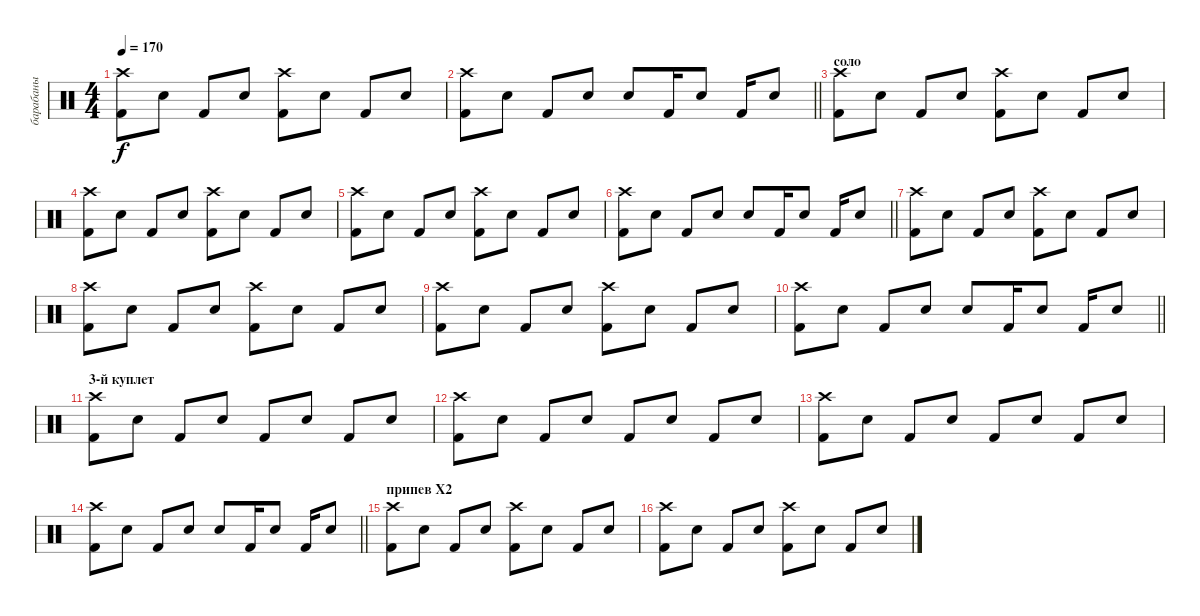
\track ("барабаны" "барабаны") {instrument percussion}
\staff {score}
\articulation defaults
\ts (4 4)
\tempo 170
\clef neutral
\ks c
("Crash high (hit)" "Kick (hit) 2").8{dy f} "Snare (hit) 2".8 "Kick (hit) 2".8 "Snare (hit) 2".8 ("Crash high (hit)" "Kick (hit) 2").8 "Snare (hit) 2".8 "Kick (hit) 2".8 "Snare (hit) 2".8 |
\barLineRight lightlight
("Crash high (hit)" "Kick (hit) 2").8 "Snare (hit) 2".8 "Kick (hit) 2".8 "Snare (hit) 2".8 "Snare (hit) 2".8 "Kick (hit) 2".16 "Snare (hit) 2".8 "Kick (hit) 2".16 "Snare (hit) 2".8 |
\section ("" "соло")
("Crash high (hit)" "Kick (hit) 2").8 "Snare (hit) 2".8 "Kick (hit) 2".8 "Snare (hit) 2".8 ("Crash high (hit)" "Kick (hit) 2").8 "Snare (hit) 2".8 "Kick (hit) 2".8 "Snare (hit) 2".8 |
("Crash high (hit)" "Kick (hit) 2").8 "Snare (hit) 2".8 "Kick (hit) 2".8 "Snare (hit) 2".8 ("Crash high (hit)" "Kick (hit) 2").8 "Snare (hit) 2".8 "Kick (hit) 2".8 "Snare (hit) 2".8 |
("Crash high (hit)" "Kick (hit) 2").8 "Snare (hit) 2".8 "Kick (hit) 2".8 "Snare (hit) 2".8 ("Crash high (hit)" "Kick (hit) 2").8 "Snare (hit) 2".8 "Kick (hit) 2".8 "Snare (hit) 2".8 |
\barLineRight lightlight
("Crash high (hit)" "Kick (hit) 2").8 "Snare (hit) 2".8 "Kick (hit) 2".8 "Snare (hit) 2".8 "Snare (hit) 2".8 "Kick (hit) 2".16 "Snare (hit) 2".8 "Kick (hit) 2".16 "Snare (hit) 2".8 |
("Crash high (hit)" "Kick (hit) 2").8 "Snare (hit) 2".8 "Kick (hit) 2".8 "Snare (hit) 2".8 ("Crash high (hit)" "Kick (hit) 2").8 "Snare (hit) 2".8 "Kick (hit) 2".8 "Snare (hit) 2".8 |
("Crash high (hit)" "Kick (hit) 2").8 "Snare (hit) 2".8 "Kick (hit) 2".8 "Snare (hit) 2".8 ("Crash high (hit)" "Kick (hit) 2").8 "Snare (hit) 2".8 "Kick (hit) 2".8 "Snare (hit) 2".8 |
("Crash high (hit)" "Kick (hit) 2").8 "Snare (hit) 2".8 "Kick (hit) 2".8 "Snare (hit) 2".8 ("Crash high (hit)" "Kick (hit) 2").8 "Snare (hit) 2".8 "Kick (hit) 2".8 "Snare (hit) 2".8 |
\barLineRight lightlight
("Crash high (hit)" "Kick (hit) 2").8 "Snare (hit) 2".8 "Kick (hit) 2".8 "Snare (hit) 2".8 "Snare (hit) 2".8 "Kick (hit) 2".16 "Snare (hit) 2".8 "Kick (hit) 2".16 "Snare (hit) 2".8 |
\section ("" "3-й куплет")
("Crash high (hit)" "Kick (hit) 2").8 "Snare (hit) 2".8 "Kick (hit) 2".8 "Snare (hit) 2".8 "Kick (hit) 2".8 "Snare (hit) 2".8 "Kick (hit) 2".8 "Snare (hit) 2".8 |
("Crash high (hit)" "Kick (hit) 2").8 "Snare (hit) 2".8 "Kick (hit) 2".8 "Snare (hit) 2".8 "Kick (hit) 2".8 "Snare (hit) 2".8 "Kick (hit) 2".8 "Snare (hit) 2".8 |
("Crash high (hit)" "Kick (hit) 2").8 "Snare (hit) 2".8 "Kick (hit) 2".8 "Snare (hit) 2".8 "Kick (hit) 2".8 "Snare (hit) 2".8 "Kick (hit) 2".8 "Snare (hit) 2".8 |
\barLineRight lightlight
("Crash high (hit)" "Kick (hit) 2").8 "Snare (hit) 2".8 "Kick (hit) 2".8 "Snare (hit) 2".8 "Snare (hit) 2".8 "Kick (hit) 2".16 "Snare (hit) 2".8 "Kick (hit) 2".16 "Snare (hit) 2".8 |
\section ("" "припев Х2")
("Crash high (hit)" "Kick (hit) 2").8 "Snare (hit) 2".8 "Kick (hit) 2".8 "Snare (hit) 2".8 ("Crash high (hit)" "Kick (hit) 2").8 "Snare (hit) 2".8 "Kick (hit) 2".8 "Snare (hit) 2".8 |
("Crash high (hit)" "Kick (hit) 2").8 "Snare (hit) 2".8 "Kick (hit) 2".8 "Snare (hit) 2".8 ("Crash high (hit)" "Kick (hit) 2").8 "Snare (hit) 2".8 "Kick (hit) 2".8 "Snare (hit) 2".8
